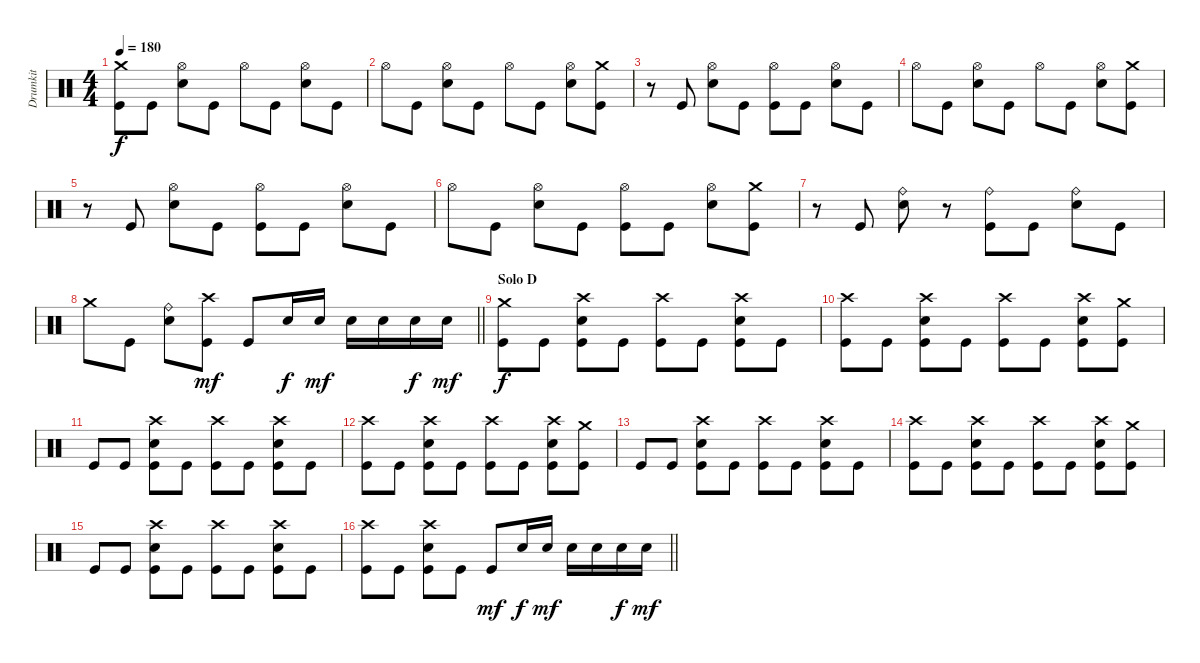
\track ("Drumkit" "Drumkit") {instrument percussion}
\staff {score}
\articulation defaults
\ts (4 4)
\tempo 180
\clef neutral
\ks c
("Crash medium (hit)" "Kick (hit)").8{dy f} "Kick (hit)".8 ("Hi-Hat (open)" "Snare (hit) 2").8 "Kick (hit)".8 "Hi-Hat (open)".8 "Kick (hit)".8 ("Hi-Hat (open)" "Snare (hit) 2").8 "Kick (hit)".8 |
"Hi-Hat (open)".8 "Kick (hit)".8 ("Hi-Hat (open)" "Snare (hit) 2").8 "Kick (hit)".8 "Hi-Hat (open)".8 "Kick (hit)".8 ("Hi-Hat (open)" "Snare (hit) 2").8 ("Crash medium (hit)" "Kick (hit)").8 |
r.8 "Kick (hit)".8 ("Hi-Hat (open)" "Snare (hit) 2").8 "Kick (hit)".8 ("Hi-Hat (open)" "Kick (hit)").8 "Kick (hit)".8 ("Hi-Hat (open)" "Snare (hit) 2").8 "Kick (hit)".8 |
"Hi-Hat (open)".8 "Kick (hit)".8 ("Hi-Hat (open)" "Snare (hit) 2").8 "Kick (hit)".8 "Hi-Hat (open)".8 "Kick (hit)".8 ("Hi-Hat (open)" "Snare (hit) 2").8 ("Crash medium (hit)" "Kick (hit)").8 |
r.8 "Kick (hit)".8 ("Hi-Hat (open)" "Snare (hit) 2").8 "Kick (hit)".8 ("Hi-Hat (open)" "Kick (hit)").8 "Kick (hit)".8 ("Hi-Hat (open)" "Snare (hit) 2").8 "Kick (hit)".8 |
"Hi-Hat (open)".8 "Kick (hit)".8 ("Hi-Hat (open)" "Snare (hit) 2").8 "Kick (hit)".8 ("Hi-Hat (open)" "Kick (hit)").8 "Kick (hit)".8 ("Hi-Hat (open)" "Snare (hit) 2").8 ("Crash medium (hit)" "Kick (hit)").8 |
r.8 "Kick (hit)".8 ("Ride (bell)" "Snare (hit) 2").8 r.8 ("Ride (bell)" "Kick (hit)").8 "Kick (hit)".8 ("Ride (bell)" "Snare (hit) 2").8 "Kick (hit)".8 |
\barLineRight lightlight "Crash medium (hit)".8 "Kick (hit)".8
("Ride (bell)" "Snare (hit) 2").8 ("Crash high (hit)" "Kick (hit)").8{dy mf} "Kick (hit)".8 "Snare (hit) 2".16{dy f} "Snare (hit) 2".16{dy mf} "Snare (hit) 2".16 "Snare (hit) 2".16 "Snare (hit) 2".16{dy f} "Snare (hit) 2".16{dy mf} |
\section ("" "Solo D")
("Crash medium (hit)" "Kick (hit)").8{dy f} "Kick (hit)".8 ("Crash high (hit)" "Snare (hit) 2" "Kick (hit)").8 "Kick (hit)".8 ("Crash high (hit)" "Kick (hit)").8 "Kick (hit)".8 ("Crash high (hit)" "Snare (hit) 2" "Kick (hit)").8 "Kick (hit)".8 |
("Crash high (hit)" "Kick (hit)").8 "Kick (hit)".8 ("Crash high (hit)" "Snare (hit) 2" "Kick (hit)").8 "Kick (hit)".8 ("Crash high (hit)" "Kick (hit)").8 "Kick (hit)".8 ("Crash high (hit)" "Snare (hit) 2" "Kick (hit)").8 ("Crash medium (hit)" "Kick (hit)").8 |
"Kick (hit)".8 "Kick (hit)".8 ("Crash high (hit)" "Snare (hit) 2" "Kick (hit)").8 "Kick (hit)".8 ("Crash high (hit)" "Kick (hit)").8 "Kick (hit)".8 ("Crash high (hit)" "Snare (hit) 2" "Kick (hit)").8 "Kick (hit)".8 |
("Crash high (hit)" "Kick (hit)").8 "Kick (hit)".8 ("Crash high (hit)" "Snare (hit) 2" "Kick (hit)").8 "Kick (hit)".8 ("Crash high (hit)" "Kick (hit)").8 "Kick (hit)".8 ("Crash high (hit)" "Snare (hit) 2" "Kick (hit)").8 ("Crash medium (hit)" "Kick (hit)").8 |
"Kick (hit)".8 "Kick (hit)".8 ("Crash high (hit)" "Snare (hit) 2" "Kick (hit)").8 "Kick (hit)".8 ("Crash high (hit)" "Kick (hit)").8 "Kick (hit)".8 ("Crash high (hit)" "Snare (hit) 2" "Kick (hit)").8 "Kick (hit)".8 |
("Crash high (hit)" "Kick (hit)").8 "Kick (hit)".8 ("Crash high (hit)" "Snare (hit) 2" "Kick (hit)").8 "Kick (hit)".8 ("Crash high (hit)" "Kick (hit)").8 "Kick (hit)".8 ("Crash high (hit)" "Snare (hit) 2" "Kick (hit)").8 ("Crash medium (hit)" "Kick (hit)").8 |
"Kick (hit)".8 "Kick (hit)".8 ("Crash high (hit)" "Snare (hit) 2" "Kick (hit)").8 "Kick (hit)".8 ("Crash high (hit)" "Kick (hit)").8 "Kick (hit)".8 ("Crash high (hit)" "Snare (hit) 2" "Kick (hit)").8 "Kick (hit)".8 |
\barLineRight lightlight
("Crash high (hit)" "Kick (hit)").8 "Kick (hit)".8 ("Crash high (hit)" "Snare (hit) 2" "Kick (hit)").8 "Kick (hit)".8 "Kick (hit)".8{dy mf} "Snare (hit) 2".16{dy f} "Snare (hit) 2".16{dy mf} "Snare (hit) 2".16 "Snare (hit) 2".16 "Snare (hit) 2".16{dy f} "Snare (hit) 2".16{dy mf}
